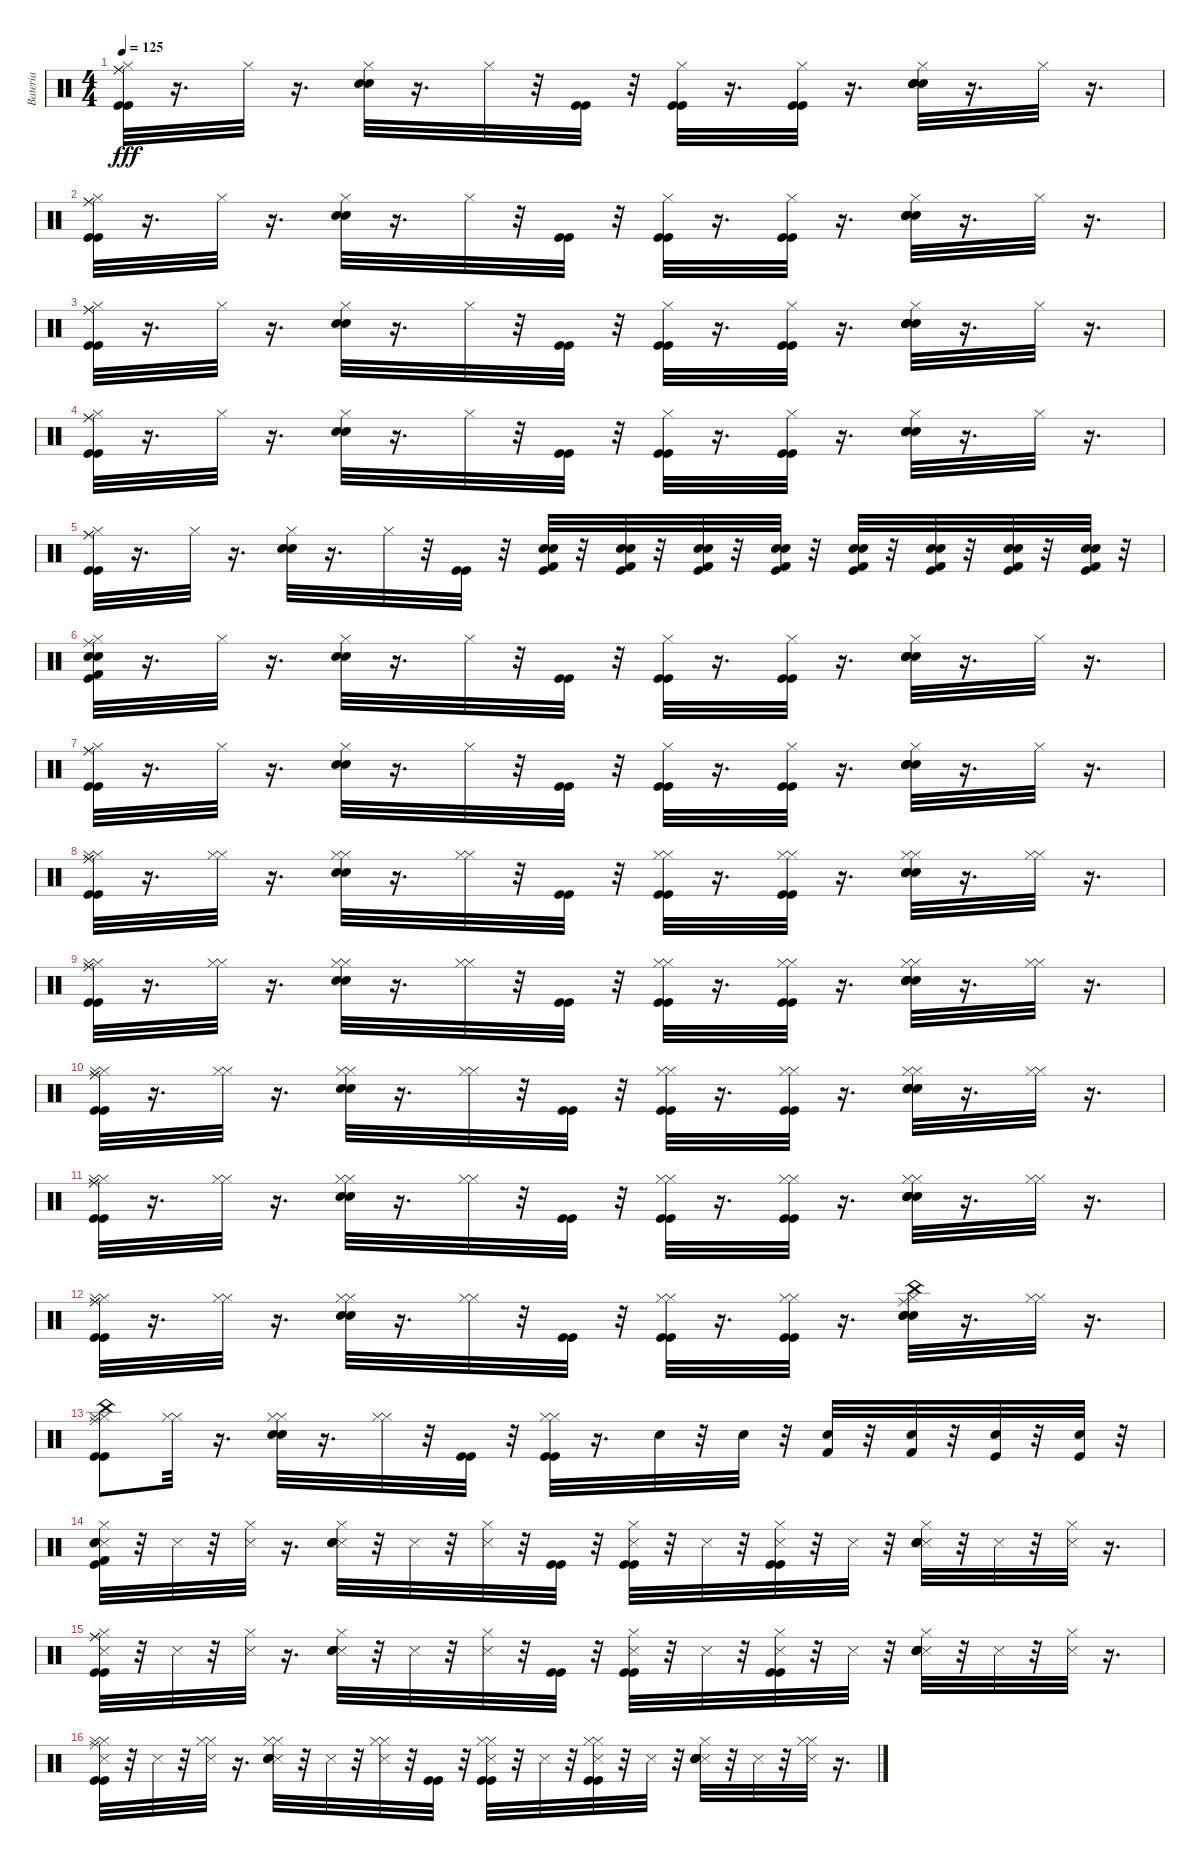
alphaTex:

\track ("Bateria" "Bateria") {instrument percussion}
\staff {score}
\articulation defaults
\ts (4 4)
\tempo 125
\clef neutral
\ks c
("Hi-Hat (closed)" "Kick (hit)" "Ride (middle)" "Kick (hit)" "Ride (middle)").32{dy fff} r.16{d} "Hi-Hat (closed)".32 r.16{d} ("Snare (hit) 2" "Electric Snare (hit)" "Hi-Hat (closed)").32 r.16{d} "Hi-Hat (closed)".32 r.32 ("Kick (hit)" "Kick (hit)").32 r.32 ("Hi-Hat (closed)" "Kick (hit)" "Kick (hit)").32 r.16{d} ("Hi-Hat (closed)" "Kick (hit)" "Kick (hit)").32 r.16{d} ("Hi-Hat (closed)" "Snare (hit) 2" "Electric Snare (hit)" "Snare (hit) 2" "Electric Snare (hit)").32 r.16{d} "Hi-Hat (closed)".32 r.16{d} |
("Hi-Hat (closed)" "Kick (hit)" "Ride (middle)" "Kick (hit)" "Ride (middle)").32 r.16{d} "Hi-Hat (closed)".32 r.16{d} ("Snare (hit) 2" "Electric Snare (hit)" "Hi-Hat (closed)").32 r.16{d} "Hi-Hat (closed)".32 r.32 ("Kick (hit)" "Kick (hit)").32 r.32 ("Hi-Hat (closed)" "Kick (hit)" "Kick (hit)").32 r.16{d} ("Hi-Hat (closed)" "Kick (hit)" "Kick (hit)").32 r.16{d} ("Hi-Hat (closed)" "Snare (hit) 2" "Electric Snare (hit)" "Snare (hit) 2" "Electric Snare (hit)").32 r.16{d} "Hi-Hat (closed)".32 r.16{d} |
("Hi-Hat (closed)" "Kick (hit)" "Ride (middle)" "Kick (hit)" "Ride (middle)").32 r.16{d} "Hi-Hat (closed)".32 r.16{d} ("Snare (hit) 2" "Electric Snare (hit)" "Hi-Hat (closed)").32 r.16{d} "Hi-Hat (closed)".32 r.32 ("Kick (hit)" "Kick (hit)").32 r.32 ("Hi-Hat (closed)" "Kick (hit)" "Kick (hit)").32 r.16{d} ("Hi-Hat (closed)" "Kick (hit)" "Kick (hit)").32 r.16{d} ("Hi-Hat (closed)" "Snare (hit) 2" "Electric Snare (hit)" "Snare (hit) 2" "Electric Snare (hit)").32 r.16{d} "Hi-Hat (closed)".32 r.16{d} |
("Hi-Hat (closed)" "Kick (hit)" "Ride (middle)" "Kick (hit)" "Ride (middle)").32 r.16{d} "Hi-Hat (closed)".32 r.16{d} ("Snare (hit) 2" "Electric Snare (hit)" "Hi-Hat (closed)").32 r.16{d} "Hi-Hat (closed)".32 r.32 ("Kick (hit)" "Kick (hit)").32 r.32 ("Hi-Hat (closed)" "Kick (hit)" "Kick (hit)").32 r.16{d} ("Hi-Hat (closed)" "Kick (hit)" "Kick (hit)").32 r.16{d} ("Hi-Hat (closed)" "Snare (hit) 2" "Electric Snare (hit)" "Snare (hit) 2" "Electric Snare (hit)").32 r.16{d} "Hi-Hat (closed)".32 r.16{d} |
("Hi-Hat (closed)" "Kick (hit)" "Ride (middle)" "Kick (hit)" "Ride (middle)").32 r.16{d} "Hi-Hat (closed)".32 r.16{d} ("Snare (hit) 2" "Electric Snare (hit)" "Hi-Hat (closed)").32 r.16{d} "Hi-Hat (closed)".32 r.32 ("Kick (hit)" "Kick (hit)").32 r.32 ("Kick (hit)" "Kick (hit) 2" "Snare (hit) 2" "Electric Snare (hit)").32 r.32 ("Kick (hit)" "Kick (hit) 2" "Snare (hit) 2" "Electric Snare (hit)").32 r.32 ("Kick (hit)" "Kick (hit) 2" "Snare (hit) 2" "Electric Snare (hit)").32 r.32 ("Kick (hit)" "Kick (hit) 2" "Snare (hit) 2" "Electric Snare (hit)").32 r.32 ("Kick (hit)" "Snare (hit) 2" "Kick (hit) 2" "Electric Snare (hit)").32 r.32 ("Kick (hit)" "Snare (hit) 2" "Kick (hit) 2" "Electric Snare (hit)").32 r.32 ("Kick (hit) 2" "Electric Snare (hit)" "Snare (hit) 2" "Kick (hit)").32 r.32 ("Kick (hit) 2" "Electric Snare (hit)" "Snare (hit) 2" "Kick (hit)").32 r.32 |
("Kick (hit) 2" "Snare (hit) 2" "Electric Snare (hit)" "Hi-Hat (closed)" "Kick (hit)" "Ride (middle)").32 r.16{d} "Hi-Hat (closed)".32 r.16{d} ("Snare (hit) 2" "Electric Snare (hit)" "Hi-Hat (closed)").32 r.16{d} "Hi-Hat (closed)".32 r.32 ("Kick (hit)" "Kick (hit)").32 r.32 ("Hi-Hat (closed)" "Kick (hit)" "Kick (hit)").32 r.16{d} ("Hi-Hat (closed)" "Kick (hit)" "Kick (hit)").32 r.16{d} ("Hi-Hat (closed)" "Snare (hit) 2" "Electric Snare (hit)" "Snare (hit) 2" "Electric Snare (hit)").32 r.16{d} "Hi-Hat (closed)".32 r.16{d} |
("Hi-Hat (closed)" "Kick (hit)" "Ride (middle)" "Kick (hit)" "Ride (middle)").32 r.16{d} "Hi-Hat (closed)".32 r.16{d} ("Snare (hit) 2" "Electric Snare (hit)" "Hi-Hat (closed)").32 r.16{d} "Hi-Hat (closed)".32 r.32 ("Kick (hit)" "Kick (hit)").32 r.32 ("Hi-Hat (closed)" "Kick (hit)" "Kick (hit)").32 r.16{d} ("Hi-Hat (closed)" "Kick (hit)" "Kick (hit)").32 r.16{d} ("Hi-Hat (closed)" "Snare (hit) 2" "Electric Snare (hit)" "Snare (hit) 2" "Electric Snare (hit)").32 r.16{d} "Hi-Hat (closed)".32 r.16{d} |
("Kick (hit)" "Hi-Hat (closed)" "Ride (middle)" "Kick (hit)" "Hi-Hat (closed)" "Ride (middle)").32 r.16{d} ("Hi-Hat (closed)" "Hi-Hat (closed)").32 r.16{d} ("Snare (hit) 2" "Electric Snare (hit)" "Hi-Hat (closed)" "Hi-Hat (closed)").32 r.16{d} ("Hi-Hat (closed)" "Hi-Hat (closed)").32 r.32 ("Kick (hit)" "Kick (hit)").32 r.32 ("Kick (hit)" "Hi-Hat (closed)" "Kick (hit)" "Hi-Hat (closed)").32 r.16{d} ("Kick (hit)" "Hi-Hat (closed)" "Kick (hit)" "Hi-Hat (closed)").32 r.16{d} ("Snare (hit) 2" "Electric Snare (hit)" "Hi-Hat (closed)" "Snare (hit) 2" "Electric Snare (hit)" "Hi-Hat (closed)").32 r.16{d} ("Hi-Hat (closed)" "Hi-Hat (closed)").32 r.16{d} |
("Kick (hit)" "Hi-Hat (closed)" "Ride (middle)" "Kick (hit)" "Hi-Hat (closed)" "Ride (middle)").32 r.16{d} ("Hi-Hat (closed)" "Hi-Hat (closed)").32 r.16{d} ("Snare (hit) 2" "Electric Snare (hit)" "Hi-Hat (closed)" "Hi-Hat (closed)").32 r.16{d} ("Hi-Hat (closed)" "Hi-Hat (closed)").32 r.32 ("Kick (hit)" "Kick (hit)").32 r.32 ("Kick (hit)" "Hi-Hat (closed)" "Kick (hit)" "Hi-Hat (closed)").32 r.16{d} ("Kick (hit)" "Hi-Hat (closed)" "Kick (hit)" "Hi-Hat (closed)").32 r.16{d} ("Snare (hit) 2" "Electric Snare (hit)" "Hi-Hat (closed)" "Snare (hit) 2" "Electric Snare (hit)" "Hi-Hat (closed)").32 r.16{d} ("Hi-Hat (closed)" "Hi-Hat (closed)").32 r.16{d} |
("Kick (hit)" "Hi-Hat (closed)" "Ride (middle)" "Kick (hit)" "Hi-Hat (closed)" "Ride (middle)").32 r.16{d} ("Hi-Hat (closed)" "Hi-Hat (closed)").32 r.16{d} ("Snare (hit) 2" "Electric Snare (hit)" "Hi-Hat (closed)" "Hi-Hat (closed)").32 r.16{d} ("Hi-Hat (closed)" "Hi-Hat (closed)").32 r.32 ("Kick (hit)" "Kick (hit)").32 r.32 ("Kick (hit)" "Hi-Hat (closed)" "Kick (hit)" "Hi-Hat (closed)").32 r.16{d} ("Kick (hit)" "Hi-Hat (closed)" "Kick (hit)" "Hi-Hat (closed)").32 r.16{d} ("Snare (hit) 2" "Electric Snare (hit)" "Hi-Hat (closed)" "Snare (hit) 2" "Electric Snare (hit)" "Hi-Hat (closed)").32 r.16{d} ("Hi-Hat (closed)" "Hi-Hat (closed)").32 r.16{d} |
("Kick (hit)" "Hi-Hat (closed)" "Ride (middle)" "Kick (hit)" "Hi-Hat (closed)" "Ride (middle)").32 r.16{d} ("Hi-Hat (closed)" "Hi-Hat (closed)").32 r.16{d} ("Snare (hit) 2" "Electric Snare (hit)" "Hi-Hat (closed)" "Hi-Hat (closed)").32 r.16{d} ("Hi-Hat (closed)" "Hi-Hat (closed)").32 r.32 ("Kick (hit)" "Kick (hit)").32 r.32 ("Kick (hit)" "Hi-Hat (closed)" "Kick (hit)" "Hi-Hat (closed)").32 r.16{d} ("Kick (hit)" "Hi-Hat (closed)" "Kick (hit)" "Hi-Hat (closed)").32 r.16{d} ("Snare (hit) 2" "Electric Snare (hit)" "Hi-Hat (closed)" "Snare (hit) 2" "Electric Snare (hit)" "Hi-Hat (closed)").32 r.16{d} ("Hi-Hat (closed)" "Hi-Hat (closed)").32 r.16{d} |
("Kick (hit)" "Hi-Hat (closed)" "Ride (middle)" "Kick (hit)" "Hi-Hat (closed)" "Ride (middle)").32 r.16{d} ("Hi-Hat (closed)" "Hi-Hat (closed)").32 r.16{d} ("Electric Snare (hit)" "Snare (hit) 2" "Hi-Hat (closed)" "Hi-Hat (closed)").32 r.16{d} ("Hi-Hat (closed)" "Hi-Hat (closed)").32 r.32 ("Kick (hit)" "Kick (hit)").32 r.32 ("Kick (hit)" "Hi-Hat (closed)" "Kick (hit)" "Hi-Hat (closed)").32 r.16{d} ("Kick (hit)" "Hi-Hat (closed)" "Kick (hit)" "Hi-Hat (closed)").32 r.16{d} ("Ride (middle)" "China (hit)" "Snare (hit) 2" "Electric Snare (hit)" "Hi-Hat (closed)" "Snare (hit) 2").32 r.16{d} ("Hi-Hat (closed)" "Hi-Hat (closed)").32 r.16{d} |
("China (hit)" "Kick (hit)" "Hi-Hat (closed)" "Ride (middle)" "Kick (hit)" "Hi-Hat (closed)").8 ("Hi-Hat (closed)" "Hi-Hat (closed)").32 r.16{d} ("Snare (hit) 2" "Electric Snare (hit)" "Hi-Hat (closed)" "Hi-Hat (closed)").32 r.16{d} ("Hi-Hat (closed)" "Hi-Hat (closed)").32 r.32 ("Kick (hit)" "Kick (hit)").32 r.32 ("Kick (hit)" "Hi-Hat (closed)" "Kick (hit)" "Hi-Hat (closed)").32 r.16{d} "Electric Snare (hit)".32 r.32 "Electric Snare (hit)".32 r.32 ("Kick (hit) 2" "Electric Snare (hit)").32 r.32 ("Kick (hit) 2" "Electric Snare (hit)").32 r.32 ("Snare (hit) 2" "Kick (hit)").32 r.32 ("Snare (hit) 2" "Kick (hit)").32 r.32 |
("Snare (side stick) 3" "Kick (hit) 2" "Snare (hit) 2" "Electric Snare (hit)" "Hi-Hat (closed)" "Kick (hit)").32 r.32 "Snare (side stick) 3".32 r.32 ("Snare (side stick) 3" "Hi-Hat (closed)").32 r.16{d} ("Snare (side stick) 3" "Snare (hit) 2" "Electric Snare (hit)" "Hi-Hat (closed)").32 r.32 "Snare (side stick) 3".32 r.32 ("Snare (side stick) 3" "Hi-Hat (closed)").32 r.32 ("Kick (hit)" "Kick (hit)").32 r.32 ("Snare (side stick) 3" "Hi-Hat (closed)" "Kick (hit)" "Kick (hit)").32 r.32 "Snare (side stick) 3".32 r.32 ("Snare (side stick) 3" "Hi-Hat (closed)" "Kick (hit)" "Kick (hit)").32 r.32 "Snare (side stick) 3".32 r.32 ("Snare (side stick) 3" "Hi-Hat (closed)" "Snare (hit) 2" "Electric Snare (hit)" "Snare (hit) 2" "Electric Snare (hit)").32 r.32 "Snare (side stick) 3".32 r.32 ("Snare (side stick) 3" "Hi-Hat (closed)").32 r.16{d} |
("Snare (side stick) 3" "Hi-Hat (closed)" "Kick (hit)" "Ride (middle)" "Kick (hit)" "Ride (middle)").32 r.32 "Snare (side stick) 3".32 r.32 ("Snare (side stick) 3" "Hi-Hat (closed)").32 r.16{d} ("Snare (side stick) 3" "Snare (hit) 2" "Electric Snare (hit)" "Hi-Hat (closed)").32 r.32 "Snare (side stick) 3".32 r.32 ("Snare (side stick) 3" "Hi-Hat (closed)").32 r.32 ("Kick (hit)" "Kick (hit)").32 r.32 ("Snare (side stick) 3" "Hi-Hat (closed)" "Kick (hit)" "Kick (hit)").32 r.32 "Snare (side stick) 3".32 r.32 ("Snare (side stick) 3" "Hi-Hat (closed)" "Kick (hit)" "Kick (hit)").32 r.32 "Snare (side stick) 3".32 r.32 ("Snare (side stick) 3" "Hi-Hat (closed)" "Snare (hit) 2" "Electric Snare (hit)" "Snare (hit) 2" "Electric Snare (hit)").32 r.32 "Snare (side stick) 3".32 r.32 ("Snare (side stick) 3" "Hi-Hat (closed)").32 r.16{d} |
("Snare (side stick) 3" "Kick (hit)" "Hi-Hat (closed)" "Ride (middle)" "Kick (hit)" "Hi-Hat (closed)").32 r.32 "Snare (side stick) 3".32 r.32 ("Snare (side stick) 3" "Hi-Hat (closed)" "Hi-Hat (closed)").32 r.16{d} ("Snare (side stick) 3" "Snare (hit) 2" "Electric Snare (hit)" "Hi-Hat (closed)" "Hi-Hat (closed)").32 r.32 "Snare (side stick) 3".32 r.32 ("Snare (side stick) 3" "Hi-Hat (closed)" "Hi-Hat (closed)").32 r.32 ("Kick (hit)" "Kick (hit)").32 r.32 ("Snare (side stick) 3" "Kick (hit)" "Hi-Hat (closed)" "Kick (hit)" "Hi-Hat (closed)").32 r.32 "Snare (side stick) 3".32 r.32 ("Snare (side stick) 3" "Kick (hit)" "Hi-Hat (closed)" "Kick (hit)" "Hi-Hat (closed)").32 r.32 "Snare (side stick) 3".32 r.32 ("Snare (side stick) 3" "Snare (hit) 2" "Electric Snare (hit)" "Hi-Hat (closed)" "Snare (hit) 2" "Electric Snare (hit)").32 r.32 "Snare (side stick) 3".32 r.32 ("Snare (side stick) 3" "Hi-Hat (closed)" "Hi-Hat (closed)").32 r.16{d}
